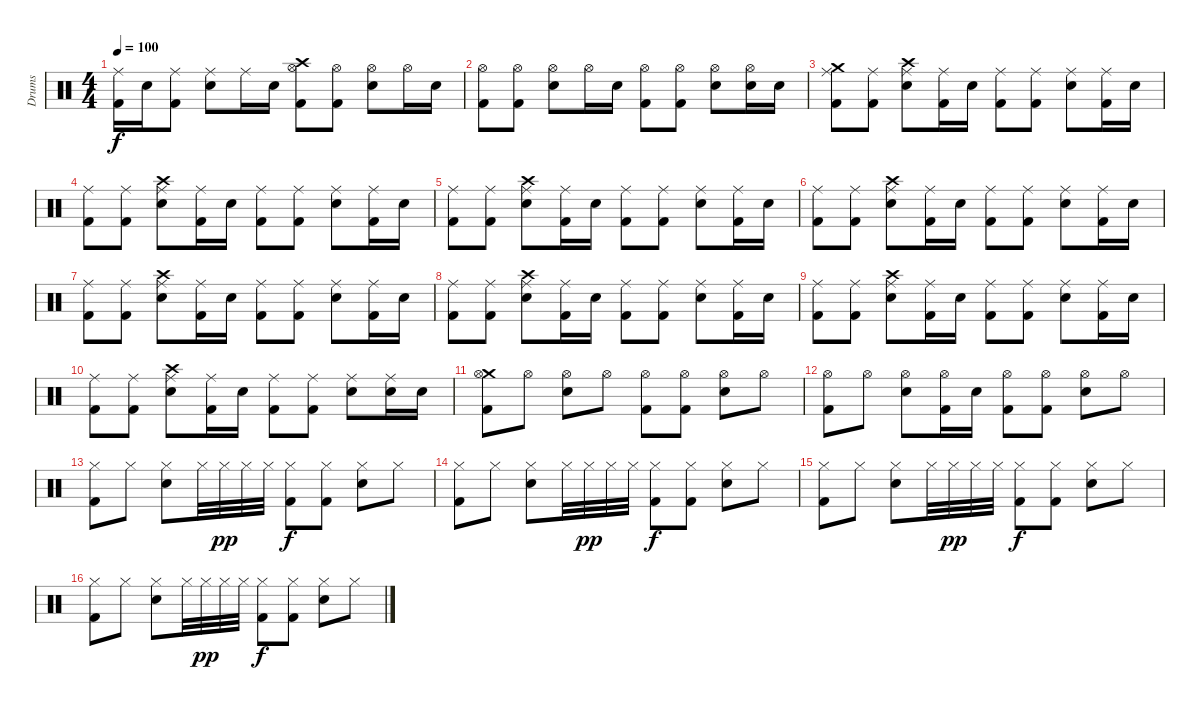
\track ("Drums" "Drums") {instrument percussion}
\staff {score}
\articulation defaults
\ts (4 4)
\tempo 100
\clef neutral
\ks c
("Ride (middle)" "Kick (hit) 2").16{dy f} "Electric Snare (hit)".16 ("Ride (middle)" "Kick (hit) 2").8 ("Ride (middle)" "Electric Snare (hit)").8 "Ride (middle)".16 "Electric Snare (hit)".16 ("Crash high (hit)" "Hi-Hat (open)" "Kick (hit) 2").8 ("Hi-Hat (open)" "Kick (hit) 2").8 ("Hi-Hat (open)" "Electric Snare (hit)").8 "Hi-Hat (open)".16 "Electric Snare (hit)".16 |
("Hi-Hat (open)" "Kick (hit) 2").8 ("Hi-Hat (open)" "Kick (hit) 2").8 ("Hi-Hat (open)" "Electric Snare (hit)").8 "Hi-Hat (open)".16 "Electric Snare (hit)".16 ("Hi-Hat (open)" "Kick (hit) 2").8 ("Hi-Hat (open)" "Kick (hit) 2").8 ("Hi-Hat (open)" "Electric Snare (hit)").8 ("Hi-Hat (open)" "Electric Snare (hit)").16 "Electric Snare (hit)".16 |
("Crash medium (hit)" "Ride (middle)" "Kick (hit) 2").8 ("Ride (middle)" "Kick (hit) 2").8 ("Crash high (hit)" "Ride (middle)" "Electric Snare (hit)").8 ("Ride (middle)" "Kick (hit) 2").16 "Electric Snare (hit)".16 ("Ride (middle)" "Kick (hit) 2").8 ("Ride (middle)" "Kick (hit) 2").8 ("Ride (middle)" "Electric Snare (hit)").8 ("Ride (middle)" "Kick (hit) 2").16 "Electric Snare (hit)".16 |
("Ride (middle)" "Kick (hit) 2").8 ("Ride (middle)" "Kick (hit) 2").8 ("Crash high (hit)" "Ride (middle)" "Electric Snare (hit)").8 ("Ride (middle)" "Kick (hit) 2").16 "Electric Snare (hit)".16 ("Ride (middle)" "Kick (hit) 2").8 ("Ride (middle)" "Kick (hit) 2").8 ("Ride (middle)" "Electric Snare (hit)").8 ("Ride (middle)" "Kick (hit) 2").16 "Electric Snare (hit)".16 |
("Ride (middle)" "Kick (hit) 2").8 ("Ride (middle)" "Kick (hit) 2").8 ("Crash high (hit)" "Ride (middle)" "Electric Snare (hit)").8 ("Ride (middle)" "Kick (hit) 2").16 "Electric Snare (hit)".16 ("Ride (middle)" "Kick (hit) 2").8 ("Ride (middle)" "Kick (hit) 2").8 ("Ride (middle)" "Electric Snare (hit)").8 ("Ride (middle)" "Kick (hit) 2").16 "Electric Snare (hit)".16 |
("Ride (middle)" "Kick (hit) 2").8 ("Ride (middle)" "Kick (hit) 2").8 ("Crash high (hit)" "Ride (middle)" "Electric Snare (hit)").8 ("Ride (middle)" "Kick (hit) 2").16 "Electric Snare (hit)".16 ("Ride (middle)" "Kick (hit) 2").8 ("Ride (middle)" "Kick (hit) 2").8 ("Ride (middle)" "Electric Snare (hit)").8 ("Ride (middle)" "Kick (hit) 2").16 "Electric Snare (hit)".16 |
("Ride (middle)" "Kick (hit) 2").8 ("Ride (middle)" "Kick (hit) 2").8 ("Crash high (hit)" "Ride (middle)" "Electric Snare (hit)").8 ("Ride (middle)" "Kick (hit) 2").16 "Electric Snare (hit)".16 ("Ride (middle)" "Kick (hit) 2").8 ("Ride (middle)" "Kick (hit) 2").8 ("Ride (middle)" "Electric Snare (hit)").8 ("Ride (middle)" "Kick (hit) 2").16 "Electric Snare (hit)".16 |
("Ride (middle)" "Kick (hit) 2").8 ("Ride (middle)" "Kick (hit) 2").8 ("Crash high (hit)" "Ride (middle)" "Electric Snare (hit)").8 ("Ride (middle)" "Kick (hit) 2").16 "Electric Snare (hit)".16 ("Ride (middle)" "Kick (hit) 2").8 ("Ride (middle)" "Kick (hit) 2").8 ("Ride (middle)" "Electric Snare (hit)").8 ("Ride (middle)" "Kick (hit) 2").16 "Electric Snare (hit)".16 |
("Ride (middle)" "Kick (hit) 2").8 ("Ride (middle)" "Kick (hit) 2").8 ("Crash high (hit)" "Ride (middle)" "Electric Snare (hit)").8 ("Ride (middle)" "Kick (hit) 2").16 "Electric Snare (hit)".16 ("Ride (middle)" "Kick (hit) 2").8 ("Ride (middle)" "Kick (hit) 2").8 ("Ride (middle)" "Electric Snare (hit)").8 ("Ride (middle)" "Kick (hit) 2").16 "Electric Snare (hit)".16 |
("Ride (middle)" "Kick (hit) 2").8 ("Ride (middle)" "Kick (hit) 2").8 ("Crash high (hit)" "Ride (middle)" "Electric Snare (hit)").8 ("Ride (middle)" "Kick (hit) 2").16 "Electric Snare (hit)".16 ("Ride (middle)" "Kick (hit) 2").8 ("Ride (middle)" "Kick (hit) 2").8 ("Ride (middle)" "Electric Snare (hit)").8 ("Ride (middle)" "Electric Snare (hit)").16 "Electric Snare (hit)".16 |
("Crash medium (hit)" "Hi-Hat (open)" "Kick (hit) 2").8 "Hi-Hat (open)".8 ("Hi-Hat (open)" "Electric Snare (hit)").8 "Hi-Hat (open)".8 ("Hi-Hat (open)" "Kick (hit) 2").8 ("Hi-Hat (open)" "Kick (hit) 2").8 ("Hi-Hat (open)" "Electric Snare (hit)").8 "Hi-Hat (open)".8 |
("Hi-Hat (open)" "Kick (hit) 2").8 "Hi-Hat (open)".8 ("Hi-Hat (open)" "Electric Snare (hit)").8 ("Hi-Hat (open)" "Kick (hit) 2").16 "Electric Snare (hit)".16 ("Hi-Hat (open)" "Kick (hit) 2").8 ("Hi-Hat (open)" "Kick (hit) 2").8 ("Hi-Hat (open)" "Electric Snare (hit)").8 "Hi-Hat (open)".8 |
("Hi-Hat (closed)" "Kick (hit) 2").8 "Hi-Hat (closed)".8 ("Hi-Hat (closed)" "Electric Snare (hit)").8 "Hi-Hat (closed)".32 "Hi-Hat (closed)".32{dy pp} "Hi-Hat (closed)".32 "Hi-Hat (closed)".32 ("Hi-Hat (closed)" "Kick (hit) 2").8{dy f} ("Hi-Hat (closed)" "Kick (hit) 2").8 ("Hi-Hat (closed)" "Electric Snare (hit)").8 "Hi-Hat (closed)".8 |
("Hi-Hat (closed)" "Kick (hit) 2").8 "Hi-Hat (closed)".8 ("Hi-Hat (closed)" "Electric Snare (hit)").8 "Hi-Hat (closed)".32 "Hi-Hat (closed)".32{dy pp} "Hi-Hat (closed)".32 "Hi-Hat (closed)".32 ("Hi-Hat (closed)" "Kick (hit) 2").8{dy f} ("Hi-Hat (closed)" "Kick (hit) 2").8 ("Hi-Hat (closed)" "Electric Snare (hit)").8 "Hi-Hat (closed)".8 |
("Hi-Hat (closed)" "Kick (hit) 2").8 "Hi-Hat (closed)".8 ("Hi-Hat (closed)" "Electric Snare (hit)").8 "Hi-Hat (closed)".32 "Hi-Hat (closed)".32{dy pp} "Hi-Hat (closed)".32 "Hi-Hat (closed)".32 ("Hi-Hat (closed)" "Kick (hit) 2").8{dy f} ("Hi-Hat (closed)" "Kick (hit) 2").8 ("Hi-Hat (closed)" "Electric Snare (hit)").8 "Hi-Hat (closed)".8 |
("Hi-Hat (closed)" "Kick (hit) 2").8 "Hi-Hat (closed)".8 ("Hi-Hat (closed)" "Electric Snare (hit)").8 "Hi-Hat (closed)".32 "Hi-Hat (closed)".32{dy pp} "Hi-Hat (closed)".32 "Hi-Hat (closed)".32 ("Hi-Hat (closed)" "Kick (hit) 2").8{dy f} ("Hi-Hat (closed)" "Kick (hit) 2").8 ("Hi-Hat (closed)" "Electric Snare (hit)").8 "Hi-Hat (closed)".8
